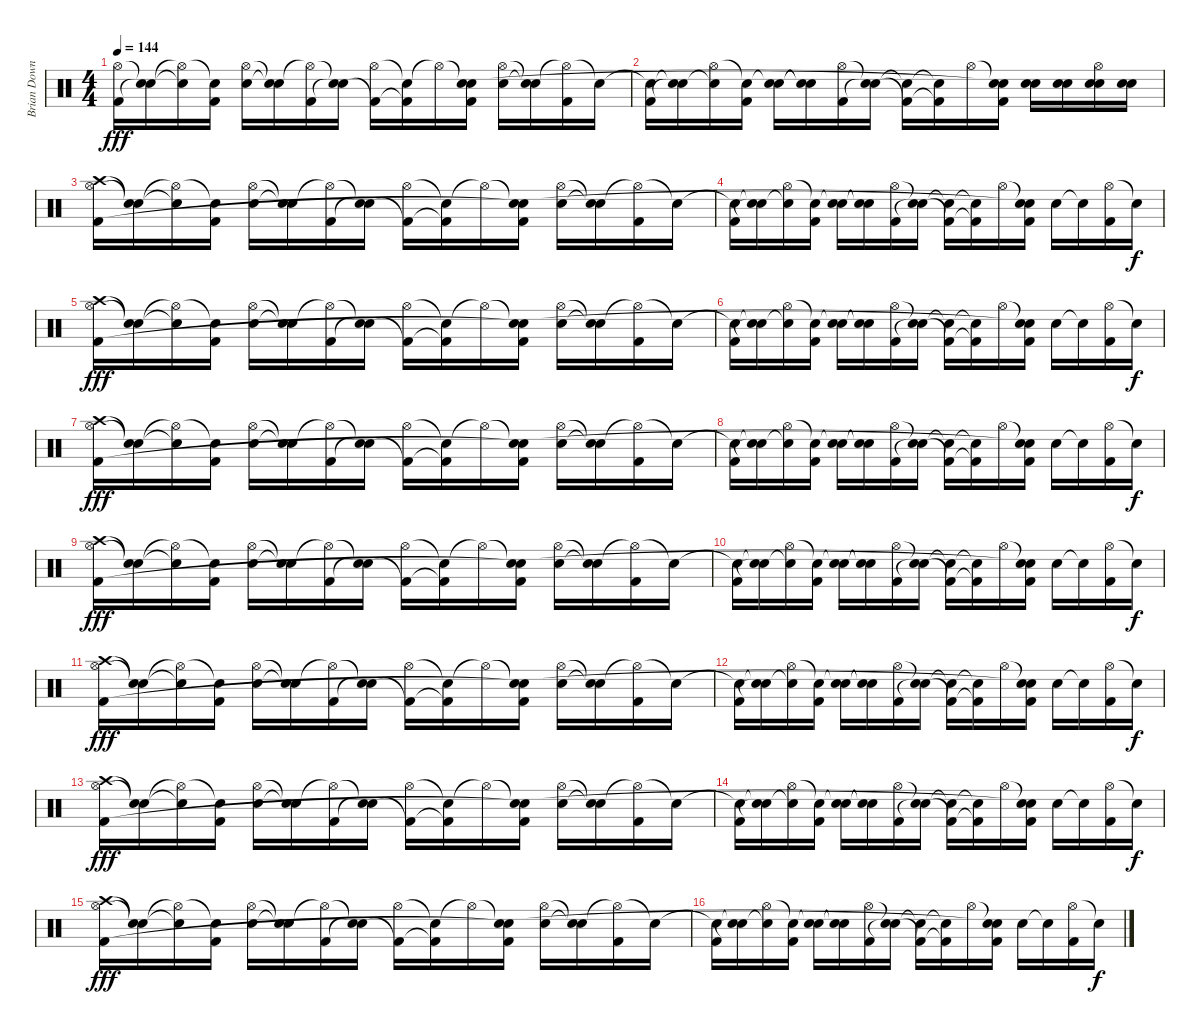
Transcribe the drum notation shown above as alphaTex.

\track ("Brian Downey" "Brian Down") {instrument percussion}
\staff {score}
\articulation defaults
\ts (4 4)
\tempo 144
\clef neutral
\ks c
("Hi-Hat (open)" "Kick (hit) 2").16{dy fff} ("Snare (hit)"{t} "Snare (hit)"{t}).16 ("Hi-Hat (open)"{t} "Snare (hit)"{t}).16 ("Snare (hit)"{t} "Kick (hit) 2").16 ("Hi-Hat (open)" "Electric Snare (hit)").16 ("Snare (hit)"{t} "Snare (hit)"{t}).16 ("Hi-Hat (open)"{t} "Kick (hit) 2").16 ("Snare (hit)"{t} "Snare (hit)"{t}).16 ("Hi-Hat (open)" "Kick (hit) 2"{t}).16 ("Snare (hit)"{t} "Kick (hit) 2"{t}).16 "Hi-Hat (open)"{t}.16 ("Snare (hit)"{t} "Kick (hit) 2" "Snare (hit)"{t}).16 ("Hi-Hat (open)" "Electric Snare (hit)").16 ("Snare (hit)"{t} "Snare (hit)"{t}).16 ("Hi-Hat (open)"{t} "Kick (hit) 2").16 "Snare (hit)"{t}.16 |
("Snare (hit)"{t} "Kick (hit) 2").16 ("Snare (hit)"{t} "Snare (hit)"{t}).16 ("Hi-Hat (open)" "Snare (hit)"{t}).16 ("Snare (hit)"{t} "Kick (hit) 2").16 ("Snare (hit)"{t} "Electric Snare (hit)").16 ("Snare (hit)"{t} "Snare (hit)"{t}).16 ("Hi-Hat (open)" "Kick (hit) 2").16 ("Snare (hit)"{t} "Snare (hit)"{t}).16 ("Snare (hit)"{t} "Kick (hit) 2"{t}).16 ("Snare (hit)"{t} "Kick (hit) 2"{t}).16 "Hi-Hat (open)".16 ("Snare (hit)"{t} "Kick (hit) 2" "Snare (hit)"{t}).16 ("Electric Snare (hit)" "Snare (hit) 2").16 ("Electric Snare (hit)" "Snare (hit) 2").16 ("Hi-Hat (open)" "Electric Snare (hit)" "Snare (hit) 2").16 ("Electric Snare (hit)" "Snare (hit) 2").16 |
("Crash high (hit)" "Hi-Hat (open)" "Kick (hit) 2").16 ("Snare (hit)"{t} "Snare (hit)"{t}).16 ("Hi-Hat (open)"{t} "Snare (hit)"{t}).16 ("Snare (hit)"{t} "Kick (hit) 2").16 ("Hi-Hat (open)" "Electric Snare (hit)").16 ("Snare (hit)"{t} "Snare (hit)"{t}).16 ("Hi-Hat (open)"{t} "Kick (hit) 2").16 ("Snare (hit)"{t} "Snare (hit)"{t}).16 ("Hi-Hat (open)" "Kick (hit) 2"{t}).16 ("Snare (hit)"{t} "Kick (hit) 2"{t}).16 "Hi-Hat (open)"{t}.16 ("Snare (hit)"{t} "Kick (hit) 2" "Snare (hit)"{t}).16 ("Hi-Hat (open)" "Electric Snare (hit)").16 ("Snare (hit)"{t} "Snare (hit)"{t}).16 ("Hi-Hat (open)"{t} "Kick (hit) 2").16 "Snare (hit)"{t}.16 |
("Snare (hit)"{t} "Kick (hit) 2").16 ("Snare (hit)"{t} "Snare (hit)"{t}).16 ("Hi-Hat (open)" "Snare (hit)"{t}).16 ("Snare (hit)"{t} "Kick (hit) 2").16 ("Snare (hit)"{t} "Electric Snare (hit)").16 ("Snare (hit)"{t} "Snare (hit)"{t}).16 ("Hi-Hat (open)" "Kick (hit) 2").16 ("Snare (hit)"{t} "Snare (hit)"{t}).16 ("Snare (hit)"{t} "Kick (hit) 2"{t}).16 ("Snare (hit)"{t} "Kick (hit) 2"{t}).16 "Hi-Hat (open)".16 ("Snare (hit)"{t} "Kick (hit) 2" "Snare (hit)"{t}).16 "Electric Snare (hit)".16 "Snare (hit)"{t}.16 ("Hi-Hat (open)" "Kick (hit) 2").16 "Snare (hit)"{t}.16{dy f} |
("Crash high (hit)" "Hi-Hat (open)" "Kick (hit) 2").16{dy fff} ("Snare (hit)"{t} "Snare (hit)"{t}).16 ("Hi-Hat (open)"{t} "Snare (hit)"{t}).16 ("Snare (hit)"{t} "Kick (hit) 2").16 ("Hi-Hat (open)" "Electric Snare (hit)").16 ("Snare (hit)"{t} "Snare (hit)"{t}).16 ("Hi-Hat (open)"{t} "Kick (hit) 2").16 ("Snare (hit)"{t} "Snare (hit)"{t}).16 ("Hi-Hat (open)" "Kick (hit) 2"{t}).16 ("Snare (hit)"{t} "Kick (hit) 2"{t}).16 "Hi-Hat (open)"{t}.16 ("Snare (hit)"{t} "Kick (hit) 2" "Snare (hit)"{t}).16 ("Hi-Hat (open)" "Electric Snare (hit)").16 ("Snare (hit)"{t} "Snare (hit)"{t}).16 ("Hi-Hat (open)"{t} "Kick (hit) 2").16 "Snare (hit)"{t}.16 |
("Snare (hit)"{t} "Kick (hit) 2").16 ("Snare (hit)"{t} "Snare (hit)"{t}).16 ("Hi-Hat (open)" "Snare (hit)"{t}).16 ("Snare (hit)"{t} "Kick (hit) 2").16 ("Snare (hit)"{t} "Electric Snare (hit)").16 ("Snare (hit)"{t} "Snare (hit)"{t}).16 ("Hi-Hat (open)" "Kick (hit) 2").16 ("Snare (hit)"{t} "Snare (hit)"{t}).16 ("Snare (hit)"{t} "Kick (hit) 2"{t}).16 ("Snare (hit)"{t} "Kick (hit) 2"{t}).16 "Hi-Hat (open)".16 ("Snare (hit)"{t} "Kick (hit) 2" "Snare (hit)"{t}).16 "Electric Snare (hit)".16 "Snare (hit)"{t}.16 ("Hi-Hat (open)" "Kick (hit) 2").16 "Snare (hit)"{t}.16{dy f} |
("Crash high (hit)" "Hi-Hat (open)" "Kick (hit) 2").16{dy fff} ("Snare (hit)"{t} "Snare (hit)"{t}).16 ("Hi-Hat (open)"{t} "Snare (hit)"{t}).16 ("Snare (hit)"{t} "Kick (hit) 2").16 ("Hi-Hat (open)" "Electric Snare (hit)").16 ("Snare (hit)"{t} "Snare (hit)"{t}).16 ("Hi-Hat (open)"{t} "Kick (hit) 2").16 ("Snare (hit)"{t} "Snare (hit)"{t}).16 ("Hi-Hat (open)" "Kick (hit) 2"{t}).16 ("Snare (hit)"{t} "Kick (hit) 2"{t}).16 "Hi-Hat (open)"{t}.16 ("Snare (hit)"{t} "Kick (hit) 2" "Snare (hit)"{t}).16 ("Hi-Hat (open)" "Electric Snare (hit)").16 ("Snare (hit)"{t} "Snare (hit)"{t}).16 ("Hi-Hat (open)"{t} "Kick (hit) 2").16 "Snare (hit)"{t}.16 |
("Snare (hit)"{t} "Kick (hit) 2").16 ("Snare (hit)"{t} "Snare (hit)"{t}).16 ("Hi-Hat (open)" "Snare (hit)"{t}).16 ("Snare (hit)"{t} "Kick (hit) 2").16 ("Snare (hit)"{t} "Electric Snare (hit)").16 ("Snare (hit)"{t} "Snare (hit)"{t}).16 ("Hi-Hat (open)" "Kick (hit) 2").16 ("Snare (hit)"{t} "Snare (hit)"{t}).16 ("Snare (hit)"{t} "Kick (hit) 2"{t}).16 ("Snare (hit)"{t} "Kick (hit) 2"{t}).16 "Hi-Hat (open)".16 ("Snare (hit)"{t} "Kick (hit) 2" "Snare (hit)"{t}).16 "Electric Snare (hit)".16 "Snare (hit)"{t}.16 ("Hi-Hat (open)" "Kick (hit) 2").16 "Snare (hit)"{t}.16{dy f} |
("Crash high (hit)" "Hi-Hat (open)" "Kick (hit) 2").16{dy fff} ("Snare (hit)"{t} "Snare (hit)"{t}).16 ("Hi-Hat (open)"{t} "Snare (hit)"{t}).16 ("Snare (hit)"{t} "Kick (hit) 2").16 ("Hi-Hat (open)" "Electric Snare (hit)").16 ("Snare (hit)"{t} "Snare (hit)"{t}).16 ("Hi-Hat (open)"{t} "Kick (hit) 2").16 ("Snare (hit)"{t} "Snare (hit)"{t}).16 ("Hi-Hat (open)" "Kick (hit) 2"{t}).16 ("Snare (hit)"{t} "Kick (hit) 2"{t}).16 "Hi-Hat (open)"{t}.16 ("Snare (hit)"{t} "Kick (hit) 2" "Snare (hit)"{t}).16 ("Hi-Hat (open)" "Electric Snare (hit)").16 ("Snare (hit)"{t} "Snare (hit)"{t}).16 ("Hi-Hat (open)"{t} "Kick (hit) 2").16 "Snare (hit)"{t}.16 |
("Snare (hit)"{t} "Kick (hit) 2").16 ("Snare (hit)"{t} "Snare (hit)"{t}).16 ("Hi-Hat (open)" "Snare (hit)"{t}).16 ("Snare (hit)"{t} "Kick (hit) 2").16 ("Snare (hit)"{t} "Electric Snare (hit)").16 ("Snare (hit)"{t} "Snare (hit)"{t}).16 ("Hi-Hat (open)" "Kick (hit) 2").16 ("Snare (hit)"{t} "Snare (hit)"{t}).16 ("Snare (hit)"{t} "Kick (hit) 2"{t}).16 ("Snare (hit)"{t} "Kick (hit) 2"{t}).16 "Hi-Hat (open)".16 ("Snare (hit)"{t} "Kick (hit) 2" "Snare (hit)"{t}).16 "Electric Snare (hit)".16 "Snare (hit)"{t}.16 ("Hi-Hat (open)" "Kick (hit) 2").16 "Snare (hit)"{t}.16{dy f} |
("Crash high (hit)" "Hi-Hat (open)" "Kick (hit) 2").16{dy fff} ("Snare (hit)"{t} "Snare (hit)"{t}).16 ("Hi-Hat (open)"{t} "Snare (hit)"{t}).16 ("Snare (hit)"{t} "Kick (hit) 2").16 ("Hi-Hat (open)" "Electric Snare (hit)").16 ("Snare (hit)"{t} "Snare (hit)"{t}).16 ("Hi-Hat (open)"{t} "Kick (hit) 2").16 ("Snare (hit)"{t} "Snare (hit)"{t}).16 ("Hi-Hat (open)" "Kick (hit) 2"{t}).16 ("Snare (hit)"{t} "Kick (hit) 2"{t}).16 "Hi-Hat (open)"{t}.16 ("Snare (hit)"{t} "Kick (hit) 2" "Snare (hit)"{t}).16 ("Hi-Hat (open)" "Electric Snare (hit)").16 ("Snare (hit)"{t} "Snare (hit)"{t}).16 ("Hi-Hat (open)"{t} "Kick (hit) 2").16 "Snare (hit)"{t}.16 |
("Snare (hit)"{t} "Kick (hit) 2").16 ("Snare (hit)"{t} "Snare (hit)"{t}).16 ("Hi-Hat (open)" "Snare (hit)"{t}).16 ("Snare (hit)"{t} "Kick (hit) 2").16 ("Snare (hit)"{t} "Electric Snare (hit)").16 ("Snare (hit)"{t} "Snare (hit)"{t}).16 ("Hi-Hat (open)" "Kick (hit) 2").16 ("Snare (hit)"{t} "Snare (hit)"{t}).16 ("Snare (hit)"{t} "Kick (hit) 2"{t}).16 ("Snare (hit)"{t} "Kick (hit) 2"{t}).16 "Hi-Hat (open)".16 ("Snare (hit)"{t} "Kick (hit) 2" "Snare (hit)"{t}).16 "Electric Snare (hit)".16 "Snare (hit)"{t}.16 ("Hi-Hat (open)" "Kick (hit) 2").16 "Snare (hit)"{t}.16{dy f} |
("Crash high (hit)" "Hi-Hat (open)" "Kick (hit) 2").16{dy fff} ("Snare (hit)"{t} "Snare (hit)"{t}).16 ("Hi-Hat (open)"{t} "Snare (hit)"{t}).16 ("Snare (hit)"{t} "Kick (hit) 2").16 ("Hi-Hat (open)" "Electric Snare (hit)").16 ("Snare (hit)"{t} "Snare (hit)"{t}).16 ("Hi-Hat (open)"{t} "Kick (hit) 2").16 ("Snare (hit)"{t} "Snare (hit)"{t}).16 ("Hi-Hat (open)" "Kick (hit) 2"{t}).16 ("Snare (hit)"{t} "Kick (hit) 2"{t}).16 "Hi-Hat (open)"{t}.16 ("Snare (hit)"{t} "Kick (hit) 2" "Snare (hit)"{t}).16 ("Hi-Hat (open)" "Electric Snare (hit)").16 ("Snare (hit)"{t} "Snare (hit)"{t}).16 ("Hi-Hat (open)"{t} "Kick (hit) 2").16 "Snare (hit)"{t}.16 |
("Snare (hit)"{t} "Kick (hit) 2").16 ("Snare (hit)"{t} "Snare (hit)"{t}).16 ("Hi-Hat (open)" "Snare (hit)"{t}).16 ("Snare (hit)"{t} "Kick (hit) 2").16 ("Snare (hit)"{t} "Electric Snare (hit)").16 ("Snare (hit)"{t} "Snare (hit)"{t}).16 ("Hi-Hat (open)" "Kick (hit) 2").16 ("Snare (hit)"{t} "Snare (hit)"{t}).16 ("Snare (hit)"{t} "Kick (hit) 2"{t}).16 ("Snare (hit)"{t} "Kick (hit) 2"{t}).16 "Hi-Hat (open)".16 ("Snare (hit)"{t} "Kick (hit) 2" "Snare (hit)"{t}).16 "Electric Snare (hit)".16 "Snare (hit)"{t}.16 ("Hi-Hat (open)" "Kick (hit) 2").16 "Snare (hit)"{t}.16{dy f} |
("Crash high (hit)" "Hi-Hat (open)" "Kick (hit) 2").16{dy fff} ("Snare (hit)"{t} "Snare (hit)"{t}).16 ("Hi-Hat (open)"{t} "Snare (hit)"{t}).16 ("Snare (hit)"{t} "Kick (hit) 2").16 ("Hi-Hat (open)" "Electric Snare (hit)").16 ("Snare (hit)"{t} "Snare (hit)"{t}).16 ("Hi-Hat (open)"{t} "Kick (hit) 2").16 ("Snare (hit)"{t} "Snare (hit)"{t}).16 ("Hi-Hat (open)" "Kick (hit) 2"{t}).16 ("Snare (hit)"{t} "Kick (hit) 2"{t}).16 "Hi-Hat (open)"{t}.16 ("Snare (hit)"{t} "Kick (hit) 2" "Snare (hit)"{t}).16 ("Hi-Hat (open)" "Electric Snare (hit)").16 ("Snare (hit)"{t} "Snare (hit)"{t}).16 ("Hi-Hat (open)"{t} "Kick (hit) 2").16 "Snare (hit)"{t}.16 |
("Snare (hit)"{t} "Kick (hit) 2").16 ("Snare (hit)"{t} "Snare (hit)"{t}).16 ("Hi-Hat (open)" "Snare (hit)"{t}).16 ("Snare (hit)"{t} "Kick (hit) 2").16 ("Snare (hit)"{t} "Electric Snare (hit)").16 ("Snare (hit)"{t} "Snare (hit)"{t}).16 ("Hi-Hat (open)" "Kick (hit) 2").16 ("Snare (hit)"{t} "Snare (hit)"{t}).16 ("Snare (hit)"{t} "Kick (hit) 2"{t}).16 ("Snare (hit)"{t} "Kick (hit) 2"{t}).16 "Hi-Hat (open)".16 ("Snare (hit)"{t} "Kick (hit) 2" "Snare (hit)"{t}).16 "Electric Snare (hit)".16 "Snare (hit)"{t}.16 ("Hi-Hat (open)" "Kick (hit) 2").16 "Snare (hit)"{t}.16{dy f}
